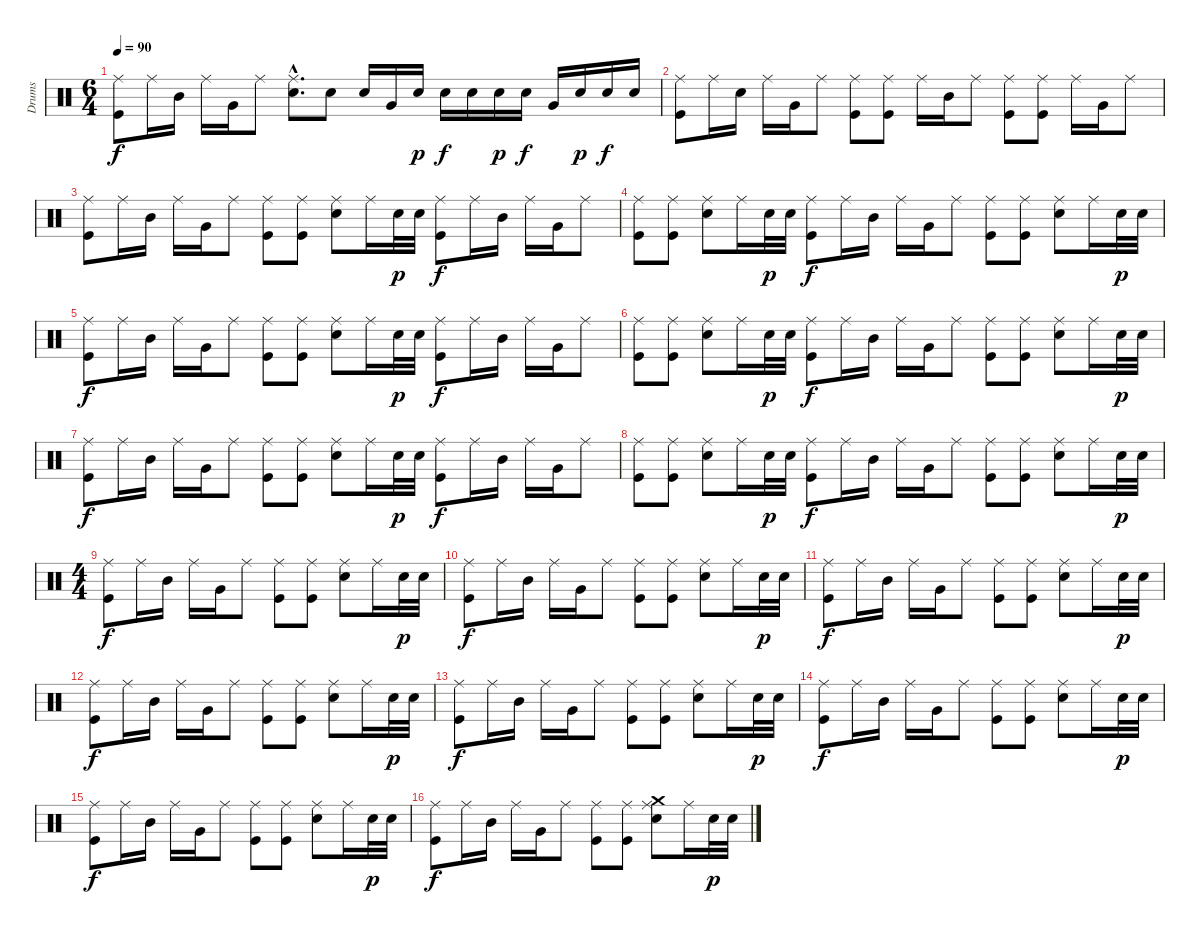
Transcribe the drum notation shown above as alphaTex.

\track ("Drums" "Drums") {instrument percussion}
\staff {score}
\articulation defaults
\ts (6 4)
\tempo 90
\clef neutral
\ks c
("Ride (middle)" "Kick (hit)").8{dy f} "Ride (middle)".16 "Mid Tom (hit)".16 "Ride (middle)".16 "Very Low Tom (hit)".16 "Ride (middle)".8 ("Ride (middle)"{hac} "Snare (hit) 2"{hac}).8{d} "Snare (hit) 2".8 "Snare (hit) 2".16 "Very Low Tom (hit)".16 "Snare (hit) 2".16{dy p} "Snare (hit) 2".16{dy f} "Snare (hit) 2".16 "Snare (hit) 2".16{dy p} "Snare (hit) 2".16{dy f} "Very Low Tom (hit)".16 "Snare (hit) 2".16{dy p} "Snare (hit) 2".16{dy f} "Snare (hit) 2".16 |
("Ride (middle)" "Kick (hit)").8 "Ride (middle)".16 "Snare (hit) 2".16 "Ride (middle)".16 "Very Low Tom (hit)".16 "Ride (middle)".8 ("Ride (middle)" "Kick (hit)").8 ("Ride (middle)" "Kick (hit)").8 "Ride (middle)".16 "Mid Tom (hit)".16 "Ride (middle)".8 ("Ride (middle)" "Kick (hit)").8 ("Ride (middle)" "Kick (hit)").8 "Ride (middle)".16 "Very Low Tom (hit)".16 "Ride (middle)".8 |
("Ride (middle)" "Kick (hit)").8{volume 13} "Ride (middle)".16 "Mid Tom (hit)".16 "Ride (middle)".16 "Very Low Tom (hit)".16 "Ride (middle)".8 ("Ride (middle)" "Kick (hit)").8 ("Ride (middle)" "Kick (hit)").8 ("Ride (middle)" "Snare (hit) 2").8 "Ride (middle)".16 "Snare (hit) 2".32{dy p} "Snare (hit) 2".32 ("Ride (middle)" "Kick (hit)").8{dy f} "Ride (middle)".16 "Mid Tom (hit)".16 "Ride (middle)".16 "Very Low Tom (hit)".16 "Ride (middle)".8 |
("Ride (middle)" "Kick (hit)").8 ("Ride (middle)" "Kick (hit)").8 ("Ride (middle)" "Snare (hit) 2").8 "Ride (middle)".16 "Snare (hit) 2".32{dy p} "Snare (hit) 2".32 ("Ride (middle)" "Kick (hit)").8{dy f} "Ride (middle)".16 "Mid Tom (hit)".16 "Ride (middle)".16 "Very Low Tom (hit)".16 "Ride (middle)".8 ("Ride (middle)" "Kick (hit)").8 ("Ride (middle)" "Kick (hit)").8 ("Ride (middle)" "Snare (hit) 2").8 "Ride (middle)".16 "Snare (hit) 2".32{dy p} "Snare (hit) 2".32 |
("Ride (middle)" "Kick (hit)").8{dy f volume 13} "Ride (middle)".16 "Mid Tom (hit)".16 "Ride (middle)".16 "Very Low Tom (hit)".16 "Ride (middle)".8 ("Ride (middle)" "Kick (hit)").8 ("Ride (middle)" "Kick (hit)").8 ("Ride (middle)" "Snare (hit) 2").8 "Ride (middle)".16 "Snare (hit) 2".32{dy p} "Snare (hit) 2".32 ("Ride (middle)" "Kick (hit)").8{dy f} "Ride (middle)".16 "Mid Tom (hit)".16 "Ride (middle)".16 "Very Low Tom (hit)".16 "Ride (middle)".8 |
("Ride (middle)" "Kick (hit)").8 ("Ride (middle)" "Kick (hit)").8 ("Ride (middle)" "Snare (hit) 2").8 "Ride (middle)".16 "Snare (hit) 2".32{dy p} "Snare (hit) 2".32 ("Ride (middle)" "Kick (hit)").8{dy f} "Ride (middle)".16 "Mid Tom (hit)".16 "Ride (middle)".16 "Very Low Tom (hit)".16 "Ride (middle)".8 ("Ride (middle)" "Kick (hit)").8 ("Ride (middle)" "Kick (hit)").8 ("Ride (middle)" "Snare (hit) 2").8 "Ride (middle)".16 "Snare (hit) 2".32{dy p} "Snare (hit) 2".32 |
("Ride (middle)" "Kick (hit)").8{dy f volume 13} "Ride (middle)".16 "Mid Tom (hit)".16 "Ride (middle)".16 "Very Low Tom (hit)".16 "Ride (middle)".8 ("Ride (middle)" "Kick (hit)").8 ("Ride (middle)" "Kick (hit)").8 ("Ride (middle)" "Snare (hit) 2").8 "Ride (middle)".16 "Snare (hit) 2".32{dy p} "Snare (hit) 2".32 ("Ride (middle)" "Kick (hit)").8{dy f} "Ride (middle)".16 "Mid Tom (hit)".16 "Ride (middle)".16 "Very Low Tom (hit)".16 "Ride (middle)".8 |
("Ride (middle)" "Kick (hit)").8 ("Ride (middle)" "Kick (hit)").8 ("Ride (middle)" "Snare (hit) 2").8 "Ride (middle)".16 "Snare (hit) 2".32{dy p} "Snare (hit) 2".32 ("Ride (middle)" "Kick (hit)").8{dy f} "Ride (middle)".16 "Mid Tom (hit)".16 "Ride (middle)".16 "Very Low Tom (hit)".16 "Ride (middle)".8 ("Ride (middle)" "Kick (hit)").8 ("Ride (middle)" "Kick (hit)").8 ("Ride (middle)" "Snare (hit) 2").8 "Ride (middle)".16 "Snare (hit) 2".32{dy p} "Snare (hit) 2".32 |
\ts (4 4)
("Ride (middle)" "Kick (hit)").8{dy f} "Ride (middle)".16 "Mid Tom (hit)".16 "Ride (middle)".16 "Very Low Tom (hit)".16 "Ride (middle)".8 ("Ride (middle)" "Kick (hit)").8 ("Ride (middle)" "Kick (hit)").8 ("Ride (middle)" "Snare (hit) 2").8 "Ride (middle)".16 "Snare (hit) 2".32{dy p} "Snare (hit) 2".32 |
("Ride (middle)" "Kick (hit)").8{dy f} "Ride (middle)".16 "Mid Tom (hit)".16 "Ride (middle)".16 "Very Low Tom (hit)".16 "Ride (middle)".8 ("Ride (middle)" "Kick (hit)").8 ("Ride (middle)" "Kick (hit)").8 ("Ride (middle)" "Snare (hit) 2").8 "Ride (middle)".16 "Snare (hit) 2".32{dy p} "Snare (hit) 2".32 |
("Ride (middle)" "Kick (hit)").8{dy f} "Ride (middle)".16 "Mid Tom (hit)".16 "Ride (middle)".16 "Very Low Tom (hit)".16 "Ride (middle)".8 ("Ride (middle)" "Kick (hit)").8 ("Ride (middle)" "Kick (hit)").8 ("Ride (middle)" "Snare (hit) 2").8 "Ride (middle)".16 "Snare (hit) 2".32{dy p} "Snare (hit) 2".32 |
("Ride (middle)" "Kick (hit)").8{dy f} "Ride (middle)".16 "Mid Tom (hit)".16 "Ride (middle)".16 "Very Low Tom (hit)".16 "Ride (middle)".8 ("Ride (middle)" "Kick (hit)").8 ("Ride (middle)" "Kick (hit)").8 ("Ride (middle)" "Snare (hit) 2").8 "Ride (middle)".16 "Snare (hit) 2".32{dy p} "Snare (hit) 2".32 |
("Ride (middle)" "Kick (hit)").8{dy f} "Ride (middle)".16 "Mid Tom (hit)".16 "Ride (middle)".16 "Very Low Tom (hit)".16 "Ride (middle)".8 ("Ride (middle)" "Kick (hit)").8 ("Ride (middle)" "Kick (hit)").8 ("Ride (middle)" "Snare (hit) 2").8 "Ride (middle)".16 "Snare (hit) 2".32{dy p} "Snare (hit) 2".32 |
("Ride (middle)" "Kick (hit)").8{dy f} "Ride (middle)".16 "Mid Tom (hit)".16 "Ride (middle)".16 "Very Low Tom (hit)".16 "Ride (middle)".8 ("Ride (middle)" "Kick (hit)").8 ("Ride (middle)" "Kick (hit)").8 ("Ride (middle)" "Snare (hit) 2").8 "Ride (middle)".16 "Snare (hit) 2".32{dy p} "Snare (hit) 2".32 |
("Ride (middle)" "Kick (hit)").8{dy f} "Ride (middle)".16 "Mid Tom (hit)".16 "Ride (middle)".16 "Very Low Tom (hit)".16 "Ride (middle)".8 ("Ride (middle)" "Kick (hit)").8 ("Ride (middle)" "Kick (hit)").8 ("Ride (middle)" "Snare (hit) 2").8 "Ride (middle)".16 "Snare (hit) 2".32{dy p} "Snare (hit) 2".32 |
("Ride (middle)" "Kick (hit)").8{dy f} "Ride (middle)".16 "Mid Tom (hit)".16 "Ride (middle)".16 "Very Low Tom (hit)".16 "Ride (middle)".8 ("Ride (middle)" "Kick (hit)").8 ("Ride (middle)" "Kick (hit)").8 ("Ride (middle)" "Crash medium (hit)" "Snare (hit) 2").8 "Ride (middle)".16 "Snare (hit) 2".32{dy p} "Snare (hit) 2".32
